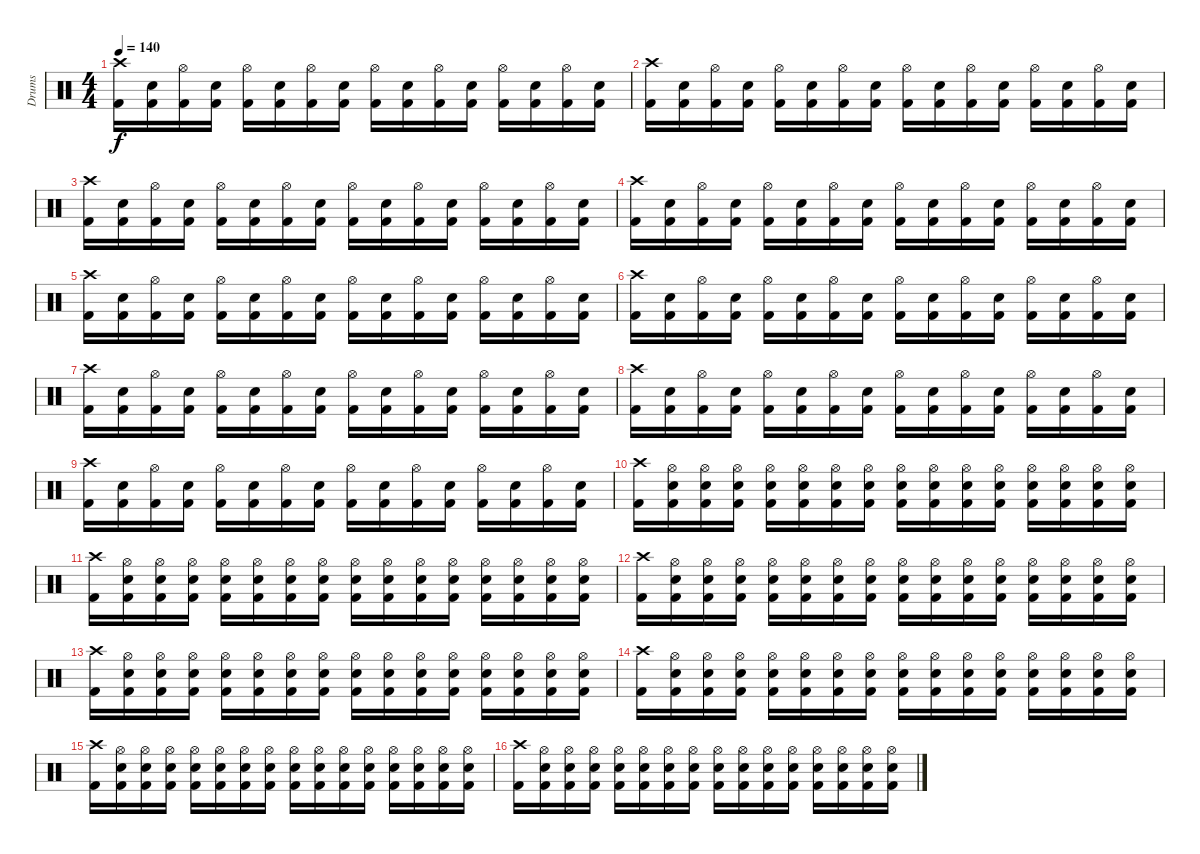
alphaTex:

\track ("Drums" "Drums") {instrument percussion}
\staff {score}
\articulation defaults
\ts (4 4)
\tempo 140
\clef neutral
\ks c
("Crash high (hit)" "Kick (hit) 2").16{dy f} ("Electric Snare (hit)" "Kick (hit) 2").16 ("Hi-Hat (open)" "Kick (hit) 2").16 ("Electric Snare (hit)" "Kick (hit) 2").16 ("Hi-Hat (open)" "Kick (hit) 2").16 ("Electric Snare (hit)" "Kick (hit) 2").16 ("Hi-Hat (open)" "Kick (hit) 2").16 ("Electric Snare (hit)" "Kick (hit) 2").16 ("Hi-Hat (open)" "Kick (hit) 2").16 ("Electric Snare (hit)" "Kick (hit) 2").16 ("Hi-Hat (open)" "Kick (hit) 2").16 ("Electric Snare (hit)" "Kick (hit) 2").16 ("Hi-Hat (open)" "Kick (hit) 2").16 ("Electric Snare (hit)" "Kick (hit) 2").16 ("Hi-Hat (open)" "Kick (hit) 2").16 ("Electric Snare (hit)" "Kick (hit) 2").16 |
("Crash high (hit)" "Kick (hit) 2").16 ("Electric Snare (hit)" "Kick (hit) 2").16 ("Hi-Hat (open)" "Kick (hit) 2").16 ("Electric Snare (hit)" "Kick (hit) 2").16 ("Hi-Hat (open)" "Kick (hit) 2").16 ("Electric Snare (hit)" "Kick (hit) 2").16 ("Hi-Hat (open)" "Kick (hit) 2").16 ("Electric Snare (hit)" "Kick (hit) 2").16 ("Hi-Hat (open)" "Kick (hit) 2").16 ("Electric Snare (hit)" "Kick (hit) 2").16 ("Hi-Hat (open)" "Kick (hit) 2").16 ("Electric Snare (hit)" "Kick (hit) 2").16 ("Hi-Hat (open)" "Kick (hit) 2").16 ("Electric Snare (hit)" "Kick (hit) 2").16 ("Hi-Hat (open)" "Kick (hit) 2").16 ("Electric Snare (hit)" "Kick (hit) 2").16 |
("Crash high (hit)" "Kick (hit) 2").16 ("Electric Snare (hit)" "Kick (hit) 2").16 ("Hi-Hat (open)" "Kick (hit) 2").16 ("Electric Snare (hit)" "Kick (hit) 2").16 ("Hi-Hat (open)" "Kick (hit) 2").16 ("Electric Snare (hit)" "Kick (hit) 2").16 ("Hi-Hat (open)" "Kick (hit) 2").16 ("Electric Snare (hit)" "Kick (hit) 2").16 ("Hi-Hat (open)" "Kick (hit) 2").16 ("Electric Snare (hit)" "Kick (hit) 2").16 ("Hi-Hat (open)" "Kick (hit) 2").16 ("Electric Snare (hit)" "Kick (hit) 2").16 ("Hi-Hat (open)" "Kick (hit) 2").16 ("Electric Snare (hit)" "Kick (hit) 2").16 ("Hi-Hat (open)" "Kick (hit) 2").16 ("Electric Snare (hit)" "Kick (hit) 2").16 |
("Crash high (hit)" "Kick (hit) 2").16 ("Electric Snare (hit)" "Kick (hit) 2").16 ("Hi-Hat (open)" "Kick (hit) 2").16 ("Electric Snare (hit)" "Kick (hit) 2").16 ("Hi-Hat (open)" "Kick (hit) 2").16 ("Electric Snare (hit)" "Kick (hit) 2").16 ("Hi-Hat (open)" "Kick (hit) 2").16 ("Electric Snare (hit)" "Kick (hit) 2").16 ("Hi-Hat (open)" "Kick (hit) 2").16 ("Electric Snare (hit)" "Kick (hit) 2").16 ("Hi-Hat (open)" "Kick (hit) 2").16 ("Electric Snare (hit)" "Kick (hit) 2").16 ("Hi-Hat (open)" "Kick (hit) 2").16 ("Electric Snare (hit)" "Kick (hit) 2").16 ("Hi-Hat (open)" "Kick (hit) 2").16 ("Electric Snare (hit)" "Kick (hit) 2").16 |
("Crash high (hit)" "Kick (hit) 2").16 ("Electric Snare (hit)" "Kick (hit) 2").16 ("Hi-Hat (open)" "Kick (hit) 2").16 ("Electric Snare (hit)" "Kick (hit) 2").16 ("Hi-Hat (open)" "Kick (hit) 2").16 ("Electric Snare (hit)" "Kick (hit) 2").16 ("Hi-Hat (open)" "Kick (hit) 2").16 ("Electric Snare (hit)" "Kick (hit) 2").16 ("Hi-Hat (open)" "Kick (hit) 2").16 ("Electric Snare (hit)" "Kick (hit) 2").16 ("Hi-Hat (open)" "Kick (hit) 2").16 ("Electric Snare (hit)" "Kick (hit) 2").16 ("Hi-Hat (open)" "Kick (hit) 2").16 ("Electric Snare (hit)" "Kick (hit) 2").16 ("Hi-Hat (open)" "Kick (hit) 2").16 ("Electric Snare (hit)" "Kick (hit) 2").16 |
("Crash high (hit)" "Kick (hit) 2").16 ("Electric Snare (hit)" "Kick (hit) 2").16 ("Hi-Hat (open)" "Kick (hit) 2").16 ("Electric Snare (hit)" "Kick (hit) 2").16 ("Hi-Hat (open)" "Kick (hit) 2").16 ("Electric Snare (hit)" "Kick (hit) 2").16 ("Hi-Hat (open)" "Kick (hit) 2").16 ("Electric Snare (hit)" "Kick (hit) 2").16 ("Hi-Hat (open)" "Kick (hit) 2").16 ("Electric Snare (hit)" "Kick (hit) 2").16 ("Hi-Hat (open)" "Kick (hit) 2").16 ("Electric Snare (hit)" "Kick (hit) 2").16 ("Hi-Hat (open)" "Kick (hit) 2").16 ("Electric Snare (hit)" "Kick (hit) 2").16 ("Hi-Hat (open)" "Kick (hit) 2").16 ("Electric Snare (hit)" "Kick (hit) 2").16 |
("Crash high (hit)" "Kick (hit) 2").16 ("Electric Snare (hit)" "Kick (hit) 2").16 ("Hi-Hat (open)" "Kick (hit) 2").16 ("Electric Snare (hit)" "Kick (hit) 2").16 ("Hi-Hat (open)" "Kick (hit) 2").16 ("Electric Snare (hit)" "Kick (hit) 2").16 ("Hi-Hat (open)" "Kick (hit) 2").16 ("Electric Snare (hit)" "Kick (hit) 2").16 ("Hi-Hat (open)" "Kick (hit) 2").16 ("Electric Snare (hit)" "Kick (hit) 2").16 ("Hi-Hat (open)" "Kick (hit) 2").16 ("Electric Snare (hit)" "Kick (hit) 2").16 ("Hi-Hat (open)" "Kick (hit) 2").16 ("Electric Snare (hit)" "Kick (hit) 2").16 ("Hi-Hat (open)" "Kick (hit) 2").16 ("Electric Snare (hit)" "Kick (hit) 2").16 |
("Crash high (hit)" "Kick (hit) 2").16 ("Electric Snare (hit)" "Kick (hit) 2").16 ("Hi-Hat (open)" "Kick (hit) 2").16 ("Electric Snare (hit)" "Kick (hit) 2").16 ("Hi-Hat (open)" "Kick (hit) 2").16 ("Electric Snare (hit)" "Kick (hit) 2").16 ("Hi-Hat (open)" "Kick (hit) 2").16 ("Electric Snare (hit)" "Kick (hit) 2").16 ("Hi-Hat (open)" "Kick (hit) 2").16 ("Electric Snare (hit)" "Kick (hit) 2").16 ("Hi-Hat (open)" "Kick (hit) 2").16 ("Electric Snare (hit)" "Kick (hit) 2").16 ("Hi-Hat (open)" "Kick (hit) 2").16 ("Electric Snare (hit)" "Kick (hit) 2").16 ("Hi-Hat (open)" "Kick (hit) 2").16 ("Electric Snare (hit)" "Kick (hit) 2").16 |
("Crash high (hit)" "Kick (hit) 2").16 ("Electric Snare (hit)" "Kick (hit) 2").16 ("Hi-Hat (open)" "Kick (hit) 2").16 ("Electric Snare (hit)" "Kick (hit) 2").16 ("Hi-Hat (open)" "Kick (hit) 2").16 ("Electric Snare (hit)" "Kick (hit) 2").16 ("Hi-Hat (open)" "Kick (hit) 2").16 ("Electric Snare (hit)" "Kick (hit) 2").16 ("Hi-Hat (open)" "Kick (hit) 2").16 ("Electric Snare (hit)" "Kick (hit) 2").16 ("Hi-Hat (open)" "Kick (hit) 2").16 ("Electric Snare (hit)" "Kick (hit) 2").16 ("Hi-Hat (open)" "Kick (hit) 2").16 ("Electric Snare (hit)" "Kick (hit) 2").16 ("Hi-Hat (open)" "Kick (hit) 2").16 ("Electric Snare (hit)" "Kick (hit) 2").16 |
("Crash high (hit)" "Kick (hit) 2").16 ("Hi-Hat (open)" "Electric Snare (hit)" "Kick (hit) 2").16 ("Hi-Hat (open)" "Electric Snare (hit)" "Kick (hit) 2").16 ("Hi-Hat (open)" "Electric Snare (hit)" "Kick (hit) 2").16 ("Hi-Hat (open)" "Electric Snare (hit)" "Kick (hit) 2").16 ("Hi-Hat (open)" "Electric Snare (hit)" "Kick (hit) 2").16 ("Hi-Hat (open)" "Electric Snare (hit)" "Kick (hit) 2").16 ("Hi-Hat (open)" "Electric Snare (hit)" "Kick (hit) 2").16 ("Hi-Hat (open)" "Electric Snare (hit)" "Kick (hit) 2").16 ("Hi-Hat (open)" "Electric Snare (hit)" "Kick (hit) 2").16 ("Hi-Hat (open)" "Electric Snare (hit)" "Kick (hit) 2").16 ("Hi-Hat (open)" "Electric Snare (hit)" "Kick (hit) 2").16 ("Hi-Hat (open)" "Electric Snare (hit)" "Kick (hit) 2").16 ("Hi-Hat (open)" "Electric Snare (hit)" "Kick (hit) 2").16 ("Hi-Hat (open)" "Electric Snare (hit)" "Kick (hit) 2").16 ("Hi-Hat (open)" "Electric Snare (hit)" "Kick (hit) 2").16 |
("Crash high (hit)" "Kick (hit) 2").16 ("Hi-Hat (open)" "Electric Snare (hit)" "Kick (hit) 2").16 ("Hi-Hat (open)" "Electric Snare (hit)" "Kick (hit) 2").16 ("Hi-Hat (open)" "Electric Snare (hit)" "Kick (hit) 2").16 ("Hi-Hat (open)" "Electric Snare (hit)" "Kick (hit) 2").16 ("Hi-Hat (open)" "Electric Snare (hit)" "Kick (hit) 2").16 ("Hi-Hat (open)" "Electric Snare (hit)" "Kick (hit) 2").16 ("Hi-Hat (open)" "Electric Snare (hit)" "Kick (hit) 2").16 ("Hi-Hat (open)" "Electric Snare (hit)" "Kick (hit) 2").16 ("Hi-Hat (open)" "Electric Snare (hit)" "Kick (hit) 2").16 ("Hi-Hat (open)" "Electric Snare (hit)" "Kick (hit) 2").16 ("Hi-Hat (open)" "Electric Snare (hit)" "Kick (hit) 2").16 ("Hi-Hat (open)" "Electric Snare (hit)" "Kick (hit) 2").16 ("Hi-Hat (open)" "Electric Snare (hit)" "Kick (hit) 2").16 ("Hi-Hat (open)" "Electric Snare (hit)" "Kick (hit) 2").16 ("Hi-Hat (open)" "Electric Snare (hit)" "Kick (hit) 2").16 |
("Crash high (hit)" "Kick (hit) 2").16 ("Hi-Hat (open)" "Electric Snare (hit)" "Kick (hit) 2").16 ("Hi-Hat (open)" "Electric Snare (hit)" "Kick (hit) 2").16 ("Hi-Hat (open)" "Electric Snare (hit)" "Kick (hit) 2").16 ("Hi-Hat (open)" "Electric Snare (hit)" "Kick (hit) 2").16 ("Hi-Hat (open)" "Electric Snare (hit)" "Kick (hit) 2").16 ("Hi-Hat (open)" "Electric Snare (hit)" "Kick (hit) 2").16 ("Hi-Hat (open)" "Electric Snare (hit)" "Kick (hit) 2").16 ("Hi-Hat (open)" "Electric Snare (hit)" "Kick (hit) 2").16 ("Hi-Hat (open)" "Electric Snare (hit)" "Kick (hit) 2").16 ("Hi-Hat (open)" "Electric Snare (hit)" "Kick (hit) 2").16 ("Hi-Hat (open)" "Electric Snare (hit)" "Kick (hit) 2").16 ("Hi-Hat (open)" "Electric Snare (hit)" "Kick (hit) 2").16 ("Hi-Hat (open)" "Electric Snare (hit)" "Kick (hit) 2").16 ("Hi-Hat (open)" "Electric Snare (hit)" "Kick (hit) 2").16 ("Hi-Hat (open)" "Electric Snare (hit)" "Kick (hit) 2").16 |
("Crash high (hit)" "Kick (hit) 2").16 ("Hi-Hat (open)" "Electric Snare (hit)" "Kick (hit) 2").16 ("Hi-Hat (open)" "Electric Snare (hit)" "Kick (hit) 2").16 ("Hi-Hat (open)" "Electric Snare (hit)" "Kick (hit) 2").16 ("Hi-Hat (open)" "Electric Snare (hit)" "Kick (hit) 2").16 ("Hi-Hat (open)" "Electric Snare (hit)" "Kick (hit) 2").16 ("Hi-Hat (open)" "Electric Snare (hit)" "Kick (hit) 2").16 ("Hi-Hat (open)" "Electric Snare (hit)" "Kick (hit) 2").16 ("Hi-Hat (open)" "Electric Snare (hit)" "Kick (hit) 2").16 ("Hi-Hat (open)" "Electric Snare (hit)" "Kick (hit) 2").16 ("Hi-Hat (open)" "Electric Snare (hit)" "Kick (hit) 2").16 ("Hi-Hat (open)" "Electric Snare (hit)" "Kick (hit) 2").16 ("Hi-Hat (open)" "Electric Snare (hit)" "Kick (hit) 2").16 ("Hi-Hat (open)" "Electric Snare (hit)" "Kick (hit) 2").16 ("Hi-Hat (open)" "Electric Snare (hit)" "Kick (hit) 2").16 ("Hi-Hat (open)" "Electric Snare (hit)" "Kick (hit) 2").16 |
("Crash high (hit)" "Kick (hit) 2").16 ("Hi-Hat (open)" "Electric Snare (hit)" "Kick (hit) 2").16 ("Hi-Hat (open)" "Electric Snare (hit)" "Kick (hit) 2").16 ("Hi-Hat (open)" "Electric Snare (hit)" "Kick (hit) 2").16 ("Hi-Hat (open)" "Electric Snare (hit)" "Kick (hit) 2").16 ("Hi-Hat (open)" "Electric Snare (hit)" "Kick (hit) 2").16 ("Hi-Hat (open)" "Electric Snare (hit)" "Kick (hit) 2").16 ("Hi-Hat (open)" "Electric Snare (hit)" "Kick (hit) 2").16 ("Hi-Hat (open)" "Electric Snare (hit)" "Kick (hit) 2").16 ("Hi-Hat (open)" "Electric Snare (hit)" "Kick (hit) 2").16 ("Hi-Hat (open)" "Electric Snare (hit)" "Kick (hit) 2").16 ("Hi-Hat (open)" "Electric Snare (hit)" "Kick (hit) 2").16 ("Hi-Hat (open)" "Electric Snare (hit)" "Kick (hit) 2").16 ("Hi-Hat (open)" "Electric Snare (hit)" "Kick (hit) 2").16 ("Hi-Hat (open)" "Electric Snare (hit)" "Kick (hit) 2").16 ("Hi-Hat (open)" "Electric Snare (hit)" "Kick (hit) 2").16 |
("Crash high (hit)" "Kick (hit) 2").16 ("Hi-Hat (open)" "Electric Snare (hit)" "Kick (hit) 2").16 ("Hi-Hat (open)" "Electric Snare (hit)" "Kick (hit) 2").16 ("Hi-Hat (open)" "Electric Snare (hit)" "Kick (hit) 2").16 ("Hi-Hat (open)" "Electric Snare (hit)" "Kick (hit) 2").16 ("Hi-Hat (open)" "Electric Snare (hit)" "Kick (hit) 2").16 ("Hi-Hat (open)" "Electric Snare (hit)" "Kick (hit) 2").16 ("Hi-Hat (open)" "Electric Snare (hit)" "Kick (hit) 2").16 ("Hi-Hat (open)" "Electric Snare (hit)" "Kick (hit) 2").16 ("Hi-Hat (open)" "Electric Snare (hit)" "Kick (hit) 2").16 ("Hi-Hat (open)" "Electric Snare (hit)" "Kick (hit) 2").16 ("Hi-Hat (open)" "Electric Snare (hit)" "Kick (hit) 2").16 ("Hi-Hat (open)" "Electric Snare (hit)" "Kick (hit) 2").16 ("Hi-Hat (open)" "Electric Snare (hit)" "Kick (hit) 2").16 ("Hi-Hat (open)" "Electric Snare (hit)" "Kick (hit) 2").16 ("Hi-Hat (open)" "Electric Snare (hit)" "Kick (hit) 2").16 |
("Crash high (hit)" "Kick (hit) 2").16 ("Hi-Hat (open)" "Electric Snare (hit)" "Kick (hit) 2").16 ("Hi-Hat (open)" "Electric Snare (hit)" "Kick (hit) 2").16 ("Hi-Hat (open)" "Electric Snare (hit)" "Kick (hit) 2").16 ("Hi-Hat (open)" "Electric Snare (hit)" "Kick (hit) 2").16 ("Hi-Hat (open)" "Electric Snare (hit)" "Kick (hit) 2").16 ("Hi-Hat (open)" "Electric Snare (hit)" "Kick (hit) 2").16 ("Hi-Hat (open)" "Electric Snare (hit)" "Kick (hit) 2").16 ("Hi-Hat (open)" "Electric Snare (hit)" "Kick (hit) 2").16 ("Hi-Hat (open)" "Electric Snare (hit)" "Kick (hit) 2").16 ("Hi-Hat (open)" "Electric Snare (hit)" "Kick (hit) 2").16 ("Hi-Hat (open)" "Electric Snare (hit)" "Kick (hit) 2").16 ("Hi-Hat (open)" "Electric Snare (hit)" "Kick (hit) 2").16 ("Hi-Hat (open)" "Electric Snare (hit)" "Kick (hit) 2").16 ("Hi-Hat (open)" "Electric Snare (hit)" "Kick (hit) 2").16 ("Hi-Hat (open)" "Electric Snare (hit)" "Kick (hit) 2").16
